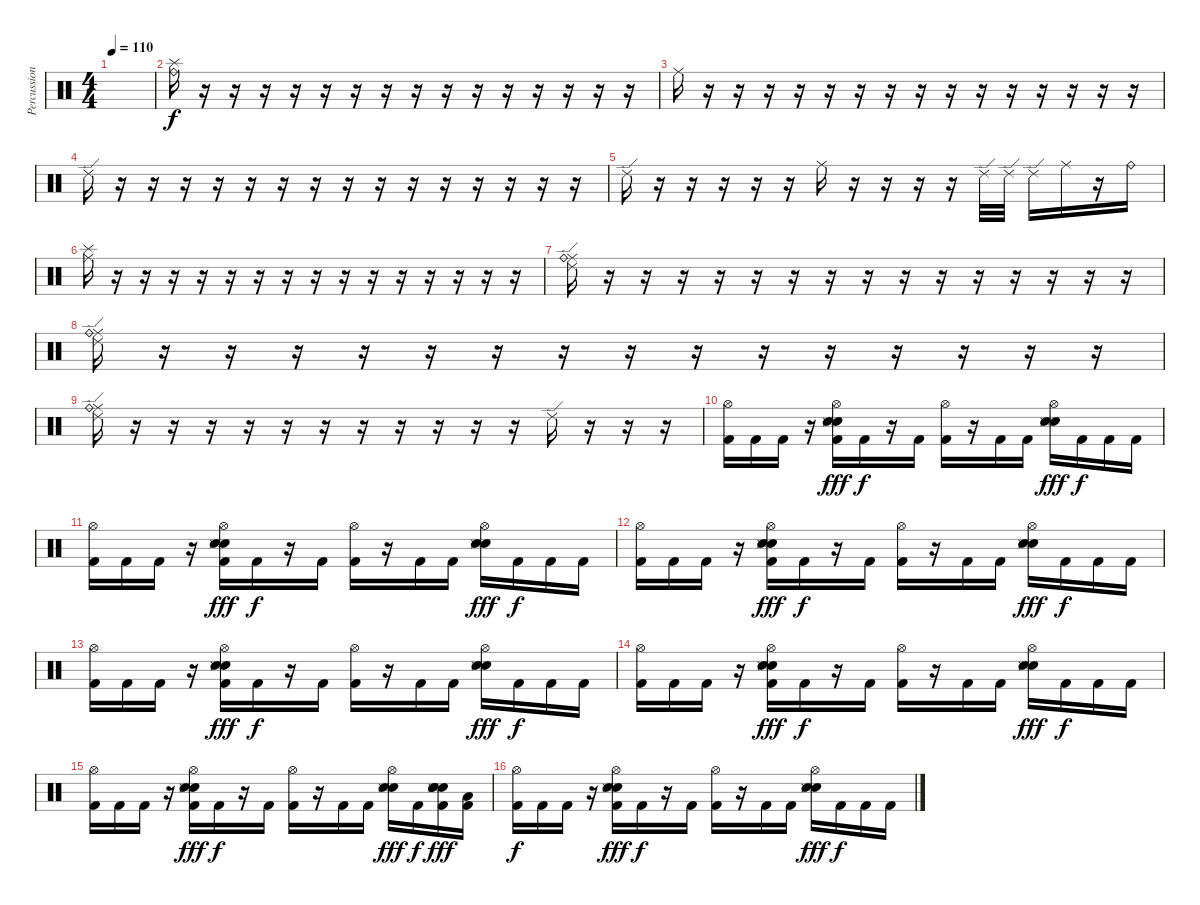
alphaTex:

\track ("Percussion" "Percussion") {instrument percussion}
\staff {score}
\articulation defaults
\ts (4 4)
\tempo 110
\clef neutral
\ks c
|
("Ride (bell)" "Splash (hit)").16{volume 16} r.16 r.16 r.16 r.16 r.16 r.16 r.16 r.16 r.16 r.16 r.16 r.16 r.16 r.16 r.16 |
"Ride (middle)".16 r.16 r.16 r.16 r.16 r.16 r.16 r.16 r.16 r.16 r.16 r.16 r.16 r.16 r.16 r.16 |
"Ride (edge) 2".16 r.16 r.16 r.16 r.16 r.16 r.16 r.16 r.16 r.16 r.16 r.16 r.16 r.16 r.16 r.16 |
"Ride (edge) 2".16 r.16 r.16 r.16 r.16 r.16 "Ride (middle)".16 r.16 r.16 r.16 r.16 "Ride (edge) 2".32 "Ride (edge) 2".32 "Ride (edge) 2".16 "Ride (middle)".16 r.16 "Ride (bell)".16 |
("Ride (middle)" "Splash (hit)").16 r.16 r.16 r.16 r.16 r.16 r.16 r.16 r.16 r.16 r.16 r.16 r.16 r.16 r.16 r.16 |
("Ride (middle)" "Ride (edge) 2" "Ride (bell)").16 r.16 r.16 r.16 r.16 r.16 r.16 r.16 r.16 r.16 r.16 r.16 r.16 r.16 r.16 r.16 |
("Ride (middle)" "Ride (edge) 2" "Ride (bell)").16 r.16 r.16 r.16 r.16 r.16 r.16 r.16 r.16 r.16 r.16 r.16 r.16 r.16 r.16 r.16 |
("Ride (middle)" "Ride (edge) 2" "Ride (bell)").16 r.16 r.16 r.16 r.16 r.16 r.16 r.16 r.16 r.16 r.16 r.16 "Ride (edge) 2".16 r.16 r.16 r.16 |
("Hi-Hat (open)" "Kick (hit) 2").16 "Kick (hit) 2".16 "Kick (hit) 2".16 r.16 ("Hi-Hat (open)" "Electric Snare (hit)" "Electric Snare (hit)" "Snare (side stick) 3" "Kick (hit) 2").16{dy fff} "Kick (hit) 2".16{dy f} r.16 "Kick (hit) 2".16 ("Hi-Hat (open)" "Kick (hit) 2").16 r.16 "Kick (hit) 2".16 "Kick (hit) 2".16 ("Hi-Hat (open)" "Electric Snare (hit)" "Electric Snare (hit)" "Snare (side stick) 3").16{dy fff} "Kick (hit) 2".16{dy f} "Kick (hit) 2".16 "Kick (hit) 2".16 |
("Hi-Hat (open)" "Kick (hit) 2").16 "Kick (hit) 2".16 "Kick (hit) 2".16 r.16 ("Hi-Hat (open)" "Electric Snare (hit)" "Electric Snare (hit)" "Snare (side stick) 3" "Kick (hit) 2").16{dy fff} "Kick (hit) 2".16{dy f} r.16 "Kick (hit) 2".16 ("Hi-Hat (open)" "Kick (hit) 2").16 r.16 "Kick (hit) 2".16 "Kick (hit) 2".16 ("Hi-Hat (open)" "Electric Snare (hit)" "Electric Snare (hit)" "Snare (side stick) 3").16{dy fff} "Kick (hit) 2".16{dy f} "Kick (hit) 2".16 "Kick (hit) 2".16 |
("Hi-Hat (open)" "Kick (hit) 2").16 "Kick (hit) 2".16 "Kick (hit) 2".16 r.16 ("Hi-Hat (open)" "Electric Snare (hit)" "Electric Snare (hit)" "Snare (side stick) 3" "Kick (hit) 2").16{dy fff} "Kick (hit) 2".16{dy f} r.16 "Kick (hit) 2".16 ("Hi-Hat (open)" "Kick (hit) 2").16 r.16 "Kick (hit) 2".16 "Kick (hit) 2".16 ("Hi-Hat (open)" "Electric Snare (hit)" "Electric Snare (hit)" "Snare (side stick) 3").16{dy fff} "Kick (hit) 2".16{dy f} "Kick (hit) 2".16 "Kick (hit) 2".16 |
("Hi-Hat (open)" "Kick (hit) 2").16 "Kick (hit) 2".16 "Kick (hit) 2".16 r.16 ("Hi-Hat (open)" "Electric Snare (hit)" "Electric Snare (hit)" "Snare (side stick) 3" "Kick (hit) 2").16{dy fff} "Kick (hit) 2".16{dy f} r.16 "Kick (hit) 2".16 ("Hi-Hat (open)" "Kick (hit) 2").16 r.16 "Kick (hit) 2".16 "Kick (hit) 2".16 ("Hi-Hat (open)" "Electric Snare (hit)" "Electric Snare (hit)" "Snare (side stick) 3").16{dy fff} "Kick (hit) 2".16{dy f} "Kick (hit) 2".16 "Kick (hit) 2".16 |
("Hi-Hat (open)" "Kick (hit) 2").16 "Kick (hit) 2".16 "Kick (hit) 2".16 r.16 ("Hi-Hat (open)" "Electric Snare (hit)" "Electric Snare (hit)" "Snare (side stick) 3" "Kick (hit) 2").16{dy fff} "Kick (hit) 2".16{dy f} r.16 "Kick (hit) 2".16 ("Hi-Hat (open)" "Kick (hit) 2").16 r.16 "Kick (hit) 2".16 "Kick (hit) 2".16 ("Hi-Hat (open)" "Electric Snare (hit)" "Electric Snare (hit)" "Snare (side stick) 3").16{dy fff} "Kick (hit) 2".16{dy f} "Kick (hit) 2".16 "Kick (hit) 2".16 |
("Hi-Hat (open)" "Kick (hit) 2").16 "Kick (hit) 2".16 "Kick (hit) 2".16 r.16 ("Hi-Hat (open)" "Electric Snare (hit)" "Electric Snare (hit)" "Snare (side stick) 3" "Kick (hit) 2").16{dy fff} "Kick (hit) 2".16{dy f} r.16 "Kick (hit) 2".16 ("Hi-Hat (open)" "Kick (hit) 2").16 r.16 "Kick (hit) 2".16 "Kick (hit) 2".16 ("Hi-Hat (open)" "Electric Snare (hit)" "Electric Snare (hit)" "Snare (side stick) 3").16{dy fff} "Kick (hit) 2".16{dy f} ("Electric Snare (hit)" "Electric Snare (hit)" "Electric Snare (hit)" "Snare (side stick) 3" "Kick (hit) 2").16{dy fff} ("Low Floor Tom (hit)" "Kick (hit) 2").16 |
("Hi-Hat (open)" "Kick (hit) 2").16{dy f} "Kick (hit) 2".16 "Kick (hit) 2".16 r.16 ("Hi-Hat (open)" "Electric Snare (hit)" "Electric Snare (hit)" "Snare (side stick) 3" "Kick (hit) 2").16{dy fff} "Kick (hit) 2".16{dy f} r.16 "Kick (hit) 2".16 ("Hi-Hat (open)" "Kick (hit) 2").16 r.16 "Kick (hit) 2".16 "Kick (hit) 2".16 ("Hi-Hat (open)" "Electric Snare (hit)" "Electric Snare (hit)" "Snare (side stick) 3").16{dy fff} "Kick (hit) 2".16{dy f} "Kick (hit) 2".16 "Kick (hit) 2".16
